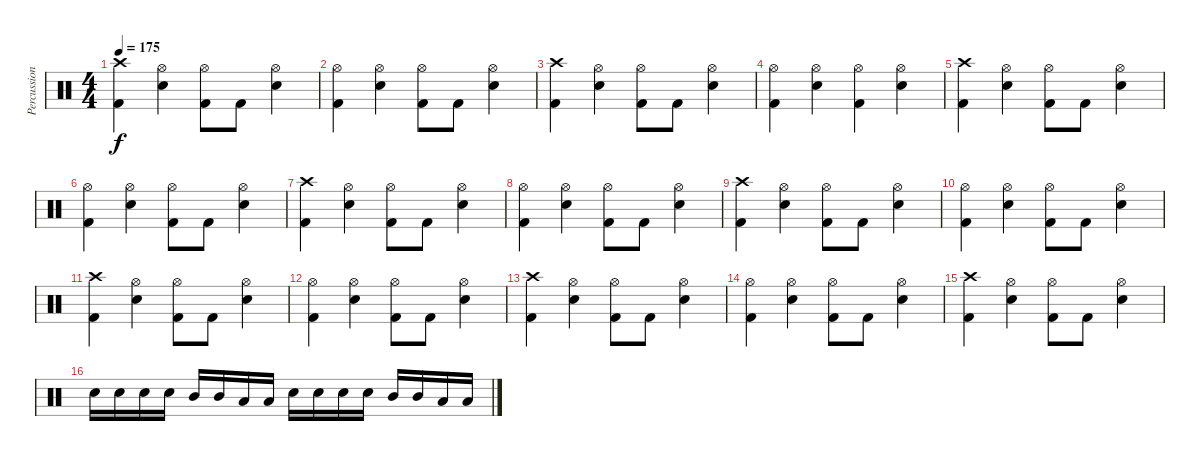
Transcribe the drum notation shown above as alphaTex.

\track ("Percussion" "Percussion") {instrument percussion}
\staff {score}
\articulation defaults
\ts (4 4)
\tempo 175
\clef neutral
\ks c
("Crash high (hit)" "Kick (hit) 2").4{dy f} ("Hi-Hat (open)" "Snare (hit) 2").4 ("Hi-Hat (open)" "Kick (hit) 2").8 "Kick (hit) 2".8 ("Hi-Hat (open)" "Snare (hit) 2").4 |
("Hi-Hat (open)" "Kick (hit) 2").4 ("Hi-Hat (open)" "Snare (hit) 2").4 ("Hi-Hat (open)" "Kick (hit) 2").8 "Kick (hit) 2".8 ("Hi-Hat (open)" "Snare (hit) 2").4 |
("Crash high (hit)" "Kick (hit) 2").4 ("Hi-Hat (open)" "Snare (hit) 2").4 ("Hi-Hat (open)" "Kick (hit) 2").8 "Kick (hit) 2".8 ("Hi-Hat (open)" "Snare (hit) 2").4 |
("Hi-Hat (open)" "Kick (hit) 2").4 ("Hi-Hat (open)" "Snare (hit) 2").4 ("Hi-Hat (open)" "Kick (hit) 2").4 ("Hi-Hat (open)" "Snare (hit) 2").4 |
("Crash high (hit)" "Kick (hit) 2").4 ("Hi-Hat (open)" "Snare (hit) 2").4 ("Hi-Hat (open)" "Kick (hit) 2").8 "Kick (hit) 2".8 ("Hi-Hat (open)" "Snare (hit) 2").4 |
("Hi-Hat (open)" "Kick (hit) 2").4 ("Hi-Hat (open)" "Snare (hit) 2").4 ("Hi-Hat (open)" "Kick (hit) 2").8 "Kick (hit) 2".8 ("Hi-Hat (open)" "Snare (hit) 2").4 |
("Crash high (hit)" "Kick (hit) 2").4 ("Hi-Hat (open)" "Snare (hit) 2").4 ("Hi-Hat (open)" "Kick (hit) 2").8 "Kick (hit) 2".8 ("Hi-Hat (open)" "Snare (hit) 2").4 |
("Hi-Hat (open)" "Kick (hit) 2").4 ("Hi-Hat (open)" "Snare (hit) 2").4 ("Hi-Hat (open)" "Kick (hit) 2").8 "Kick (hit) 2".8 ("Hi-Hat (open)" "Snare (hit) 2").4 |
("Crash high (hit)" "Kick (hit) 2").4 ("Hi-Hat (open)" "Snare (hit) 2").4 ("Hi-Hat (open)" "Kick (hit) 2").8 "Kick (hit) 2".8 ("Hi-Hat (open)" "Snare (hit) 2").4 |
("Hi-Hat (open)" "Kick (hit) 2").4 ("Hi-Hat (open)" "Snare (hit) 2").4 ("Hi-Hat (open)" "Kick (hit) 2").8 "Kick (hit) 2".8 ("Hi-Hat (open)" "Snare (hit) 2").4 |
("Crash high (hit)" "Kick (hit) 2").4 ("Hi-Hat (open)" "Snare (hit) 2").4 ("Hi-Hat (open)" "Kick (hit) 2").8 "Kick (hit) 2".8 ("Hi-Hat (open)" "Snare (hit) 2").4 |
("Hi-Hat (open)" "Kick (hit) 2").4 ("Hi-Hat (open)" "Snare (hit) 2").4 ("Hi-Hat (open)" "Kick (hit) 2").8 "Kick (hit) 2".8 ("Hi-Hat (open)" "Snare (hit) 2").4 |
("Crash high (hit)" "Kick (hit) 2").4 ("Hi-Hat (open)" "Snare (hit) 2").4 ("Hi-Hat (open)" "Kick (hit) 2").8 "Kick (hit) 2".8 ("Hi-Hat (open)" "Snare (hit) 2").4 |
("Hi-Hat (open)" "Kick (hit) 2").4 ("Hi-Hat (open)" "Snare (hit) 2").4 ("Hi-Hat (open)" "Kick (hit) 2").8 "Kick (hit) 2".8 ("Hi-Hat (open)" "Snare (hit) 2").4 |
("Crash high (hit)" "Kick (hit) 2").4 ("Hi-Hat (open)" "Snare (hit) 2").4 ("Hi-Hat (open)" "Kick (hit) 2").8 "Kick (hit) 2".8 ("Hi-Hat (open)" "Snare (hit) 2").4 |
"Snare (hit) 2".16 "Snare (hit) 2".16 "Snare (hit) 2".16 "Snare (hit) 2".16 "Mid Tom (hit)".16 "Mid Tom (hit)".16 "Low Tom (hit)".16 "Low Tom (hit)".16 "Snare (hit) 2".16 "Snare (hit) 2".16 "Snare (hit) 2".16 "Snare (hit) 2".16 "Mid Tom (hit)".16 "Mid Tom (hit)".16 "Low Tom (hit)".16 "Low Tom (hit)".16
